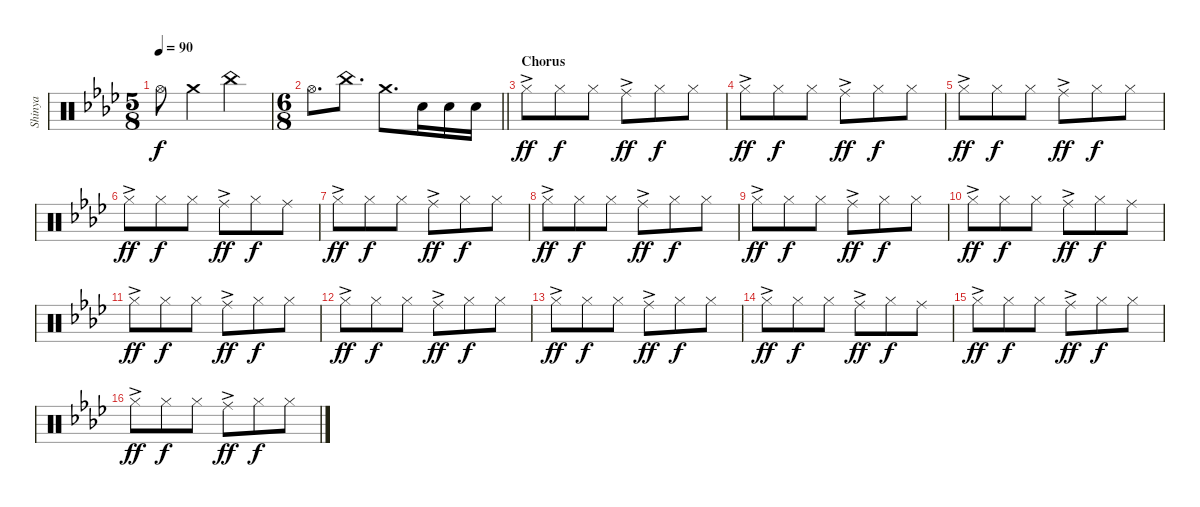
\track ("Shinya" "Shinya") {instrument percussion}
\staff {score}
\articulation defaults
\ts (5 8)
\tempo 90
\clef neutral
\ks fminor "Hi-Hat (open)".8{dy f} "Crash medium (hit)".4 "China (hit)".4
|
\ts (6 8)
\barLineRight lightlight "Hi-Hat (open)".8{d} "China (hit)".8{d} "Crash medium (hit)".8{d} "Snare (hit) 2".16 "Snare (hit) 2".16 "Snare (hit) 2".16
|
\section ("" "Chorus")
"Hi-Hat (closed)"{ac}.8{dy ff} "Hi-Hat (closed)".8{dy f} "Hi-Hat (closed)".8 "Ride (middle)"{ac}.8{dy ff} "Hi-Hat (closed)".8{dy f} "Hi-Hat (closed)".8 |
"Hi-Hat (closed)"{ac}.8{dy ff} "Hi-Hat (closed)".8{dy f} "Hi-Hat (closed)".8 "Ride (middle)"{ac}.8{dy ff} "Hi-Hat (closed)".8{dy f} "Hi-Hat (closed)".8 |
"Hi-Hat (closed)"{ac}.8{dy ff} "Hi-Hat (closed)".8{dy f} "Hi-Hat (closed)".8 "Ride (middle)"{ac}.8{dy ff} "Hi-Hat (closed)".8{dy f} "Hi-Hat (closed)".8 |
"Hi-Hat (closed)"{ac}.8{dy ff} "Hi-Hat (closed)".8{dy f} "Hi-Hat (closed)".8 "Ride (middle)"{ac}.8{dy ff} "Hi-Hat (closed)".8{dy f} "Ride (middle)".8 |
"Hi-Hat (closed)"{ac}.8{dy ff} "Hi-Hat (closed)".8{dy f} "Hi-Hat (closed)".8 "Ride (middle)"{ac}.8{dy ff} "Hi-Hat (closed)".8{dy f} "Hi-Hat (closed)".8 |
"Hi-Hat (closed)"{ac}.8{dy ff} "Hi-Hat (closed)".8{dy f} "Hi-Hat (closed)".8 "Ride (middle)"{ac}.8{dy ff} "Hi-Hat (closed)".8{dy f} "Hi-Hat (closed)".8 |
"Hi-Hat (closed)"{ac}.8{dy ff} "Hi-Hat (closed)".8{dy f} "Hi-Hat (closed)".8 "Ride (middle)"{ac}.8{dy ff} "Hi-Hat (closed)".8{dy f} "Hi-Hat (closed)".8 |
"Hi-Hat (closed)"{ac}.8{dy ff} "Hi-Hat (closed)".8{dy f} "Hi-Hat (closed)".8 "Ride (middle)"{ac}.8{dy ff} "Hi-Hat (closed)".8{dy f} "Ride (middle)".8 |
"Hi-Hat (closed)"{ac}.8{dy ff} "Hi-Hat (closed)".8{dy f} "Hi-Hat (closed)".8 "Ride (middle)"{ac}.8{dy ff} "Hi-Hat (closed)".8{dy f} "Hi-Hat (closed)".8 |
"Hi-Hat (closed)"{ac}.8{dy ff} "Hi-Hat (closed)".8{dy f} "Hi-Hat (closed)".8 "Ride (middle)"{ac}.8{dy ff} "Hi-Hat (closed)".8{dy f} "Hi-Hat (closed)".8 |
"Hi-Hat (closed)"{ac}.8{dy ff} "Hi-Hat (closed)".8{dy f} "Hi-Hat (closed)".8 "Ride (middle)"{ac}.8{dy ff} "Hi-Hat (closed)".8{dy f} "Hi-Hat (closed)".8 |
"Hi-Hat (closed)"{ac}.8{dy ff} "Hi-Hat (closed)".8{dy f} "Hi-Hat (closed)".8 "Ride (middle)"{ac}.8{dy ff} "Hi-Hat (closed)".8{dy f} "Ride (middle)".8 |
"Hi-Hat (closed)"{ac}.8{dy ff} "Hi-Hat (closed)".8{dy f} "Hi-Hat (closed)".8 "Ride (middle)"{ac}.8{dy ff} "Hi-Hat (closed)".8{dy f} "Hi-Hat (closed)".8 |
"Hi-Hat (closed)"{ac}.8{dy ff} "Hi-Hat (closed)".8{dy f} "Hi-Hat (closed)".8 "Ride (middle)"{ac}.8{dy ff} "Hi-Hat (closed)".8{dy f} "Hi-Hat (closed)".8
